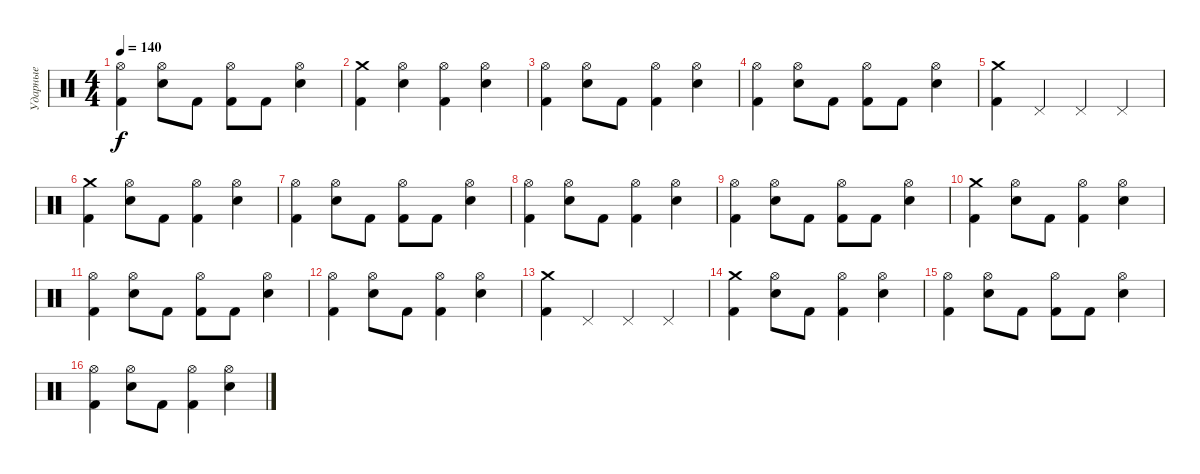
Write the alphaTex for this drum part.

\track ("Ударные" "Ударные") {instrument percussion}
\staff {score}
\articulation defaults
\ts (4 4)
\tempo 140
\clef neutral
\ks c
("Hi-Hat (open)" "Kick (hit) 2").4{dy f} ("Hi-Hat (open)" "Snare (hit) 2").8 "Kick (hit) 2".8 ("Hi-Hat (open)" "Kick (hit) 2").8 "Kick (hit) 2".8 ("Hi-Hat (open)" "Snare (hit) 2").4 |
("Crash medium (hit)" "Kick (hit) 2").4 ("Hi-Hat (open)" "Snare (hit) 2").4 ("Hi-Hat (open)" "Kick (hit) 2").4 ("Snare (hit) 2" "Hi-Hat (open)").4 |
("Hi-Hat (open)" "Kick (hit) 2").4 ("Hi-Hat (open)" "Snare (hit) 2").8 "Kick (hit) 2".8 ("Hi-Hat (open)" "Kick (hit) 2").4 ("Snare (hit) 2" "Hi-Hat (open)").4 |
("Hi-Hat (open)" "Kick (hit) 2").4 ("Hi-Hat (open)" "Snare (hit) 2").8 "Kick (hit) 2".8 ("Hi-Hat (open)" "Kick (hit) 2").8 "Kick (hit) 2".8 ("Hi-Hat (open)" "Snare (hit) 2").4 |
("Crash medium (hit)" "Kick (hit) 2").4 "Pedal Hi-Hat (hit)".4 "Pedal Hi-Hat (hit)".4 "Pedal Hi-Hat (hit)".4 |
("Kick (hit) 2" "Crash medium (hit)").4 ("Hi-Hat (open)" "Snare (hit) 2").8 "Kick (hit) 2".8 ("Hi-Hat (open)" "Kick (hit) 2").4 ("Snare (hit) 2" "Hi-Hat (open)").4 |
("Hi-Hat (open)" "Kick (hit) 2").4 ("Hi-Hat (open)" "Snare (hit) 2").8 "Kick (hit) 2".8 ("Kick (hit) 2" "Hi-Hat (open)").8 "Kick (hit) 2".8 ("Snare (hit) 2" "Hi-Hat (open)").4 |
("Kick (hit) 2" "Hi-Hat (open)").4 ("Hi-Hat (open)" "Snare (hit) 2").8 "Kick (hit) 2".8 ("Hi-Hat (open)" "Kick (hit) 2").4 ("Snare (hit) 2" "Hi-Hat (open)").4 |
("Hi-Hat (open)" "Kick (hit) 2").4 ("Hi-Hat (open)" "Snare (hit) 2").8 "Kick (hit) 2".8 ("Kick (hit) 2" "Hi-Hat (open)").8 "Kick (hit) 2".8 ("Snare (hit) 2" "Hi-Hat (open)").4 |
("Kick (hit) 2" "Crash medium (hit)").4 ("Hi-Hat (open)" "Snare (hit) 2").8 "Kick (hit) 2".8 ("Hi-Hat (open)" "Kick (hit) 2").4 ("Snare (hit) 2" "Hi-Hat (open)").4 |
("Hi-Hat (open)" "Kick (hit) 2").4 ("Hi-Hat (open)" "Snare (hit) 2").8 "Kick (hit) 2".8 ("Kick (hit) 2" "Hi-Hat (open)").8 "Kick (hit) 2".8 ("Snare (hit) 2" "Hi-Hat (open)").4 |
("Kick (hit) 2" "Hi-Hat (open)").4 ("Hi-Hat (open)" "Snare (hit) 2").8 "Kick (hit) 2".8 ("Hi-Hat (open)" "Kick (hit) 2").4 ("Snare (hit) 2" "Hi-Hat (open)").4 |
("Kick (hit) 2" "Crash medium (hit)").4 "Pedal Hi-Hat (hit)".4 "Pedal Hi-Hat (hit)".4 "Pedal Hi-Hat (hit)".4 |
("Kick (hit) 2" "Crash medium (hit)").4 ("Hi-Hat (open)" "Snare (hit) 2").8 "Kick (hit) 2".8 ("Hi-Hat (open)" "Kick (hit) 2").4 ("Snare (hit) 2" "Hi-Hat (open)").4 |
("Hi-Hat (open)" "Kick (hit) 2").4 ("Hi-Hat (open)" "Snare (hit) 2").8 "Kick (hit) 2".8 ("Kick (hit) 2" "Hi-Hat (open)").8 "Kick (hit) 2".8 ("Snare (hit) 2" "Hi-Hat (open)").4 |
("Kick (hit) 2" "Hi-Hat (open)").4 ("Hi-Hat (open)" "Snare (hit) 2").8 "Kick (hit) 2".8 ("Hi-Hat (open)" "Kick (hit) 2").4 ("Snare (hit) 2" "Hi-Hat (open)").4
